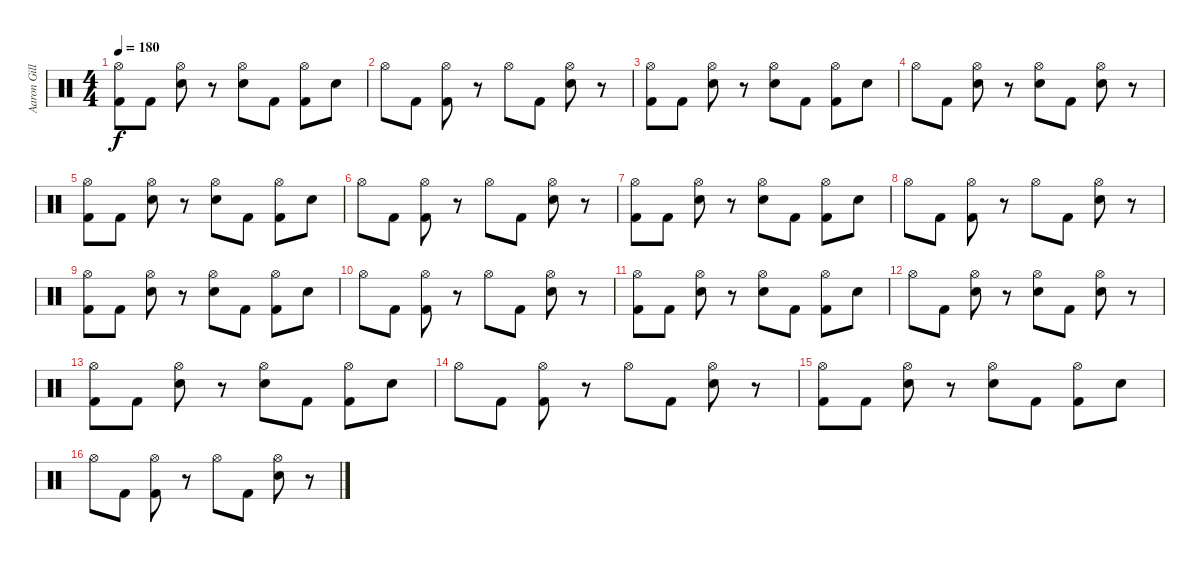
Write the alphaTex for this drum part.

\track ("Aaron Gillespie 1" "Aaron Gill") {instrument percussion}
\staff {score}
\articulation defaults
\ts (4 4)
\tempo 180
\clef neutral
\ks c
("Hi-Hat (open)" "Kick (hit) 2").8{dy f} "Kick (hit) 2".8 ("Hi-Hat (open)" "Snare (hit) 2").8 r.8 ("Hi-Hat (open)" "Snare (hit) 2").8 "Kick (hit) 2".8 ("Hi-Hat (open)" "Kick (hit) 2").8 "Snare (hit) 2".8 |
"Hi-Hat (open)".8 "Kick (hit) 2".8 ("Hi-Hat (open)" "Kick (hit) 2").8 r.8 "Hi-Hat (open)".8 "Kick (hit) 2".8 ("Hi-Hat (open)" "Snare (hit) 2").8 r.8 |
("Hi-Hat (open)" "Kick (hit) 2").8 "Kick (hit) 2".8 ("Hi-Hat (open)" "Snare (hit) 2").8 r.8 ("Hi-Hat (open)" "Snare (hit) 2").8 "Kick (hit) 2".8 ("Hi-Hat (open)" "Kick (hit) 2").8 "Snare (hit) 2".8 |
"Hi-Hat (open)".8 "Kick (hit) 2".8 ("Hi-Hat (open)" "Snare (hit) 2").8 r.8 ("Hi-Hat (open)" "Snare (hit) 2").8 "Kick (hit) 2".8 ("Hi-Hat (open)" "Snare (hit) 2").8 r.8 |
("Hi-Hat (open)" "Kick (hit) 2").8 "Kick (hit) 2".8 ("Hi-Hat (open)" "Snare (hit) 2").8 r.8 ("Hi-Hat (open)" "Snare (hit) 2").8 "Kick (hit) 2".8 ("Hi-Hat (open)" "Kick (hit) 2").8 "Snare (hit) 2".8 |
"Hi-Hat (open)".8 "Kick (hit) 2".8 ("Hi-Hat (open)" "Kick (hit) 2").8 r.8 "Hi-Hat (open)".8 "Kick (hit) 2".8 ("Hi-Hat (open)" "Snare (hit) 2").8 r.8 |
("Hi-Hat (open)" "Kick (hit) 2").8 "Kick (hit) 2".8 ("Hi-Hat (open)" "Snare (hit) 2").8 r.8 ("Hi-Hat (open)" "Snare (hit) 2").8 "Kick (hit) 2".8 ("Hi-Hat (open)" "Kick (hit) 2").8 "Snare (hit) 2".8 |
"Hi-Hat (open)".8 "Kick (hit) 2".8 ("Hi-Hat (open)" "Kick (hit) 2").8 r.8 "Hi-Hat (open)".8 "Kick (hit) 2".8 ("Hi-Hat (open)" "Snare (hit) 2").8 r.8 |
("Hi-Hat (open)" "Kick (hit) 2").8 "Kick (hit) 2".8 ("Hi-Hat (open)" "Snare (hit) 2").8 r.8 ("Hi-Hat (open)" "Snare (hit) 2").8 "Kick (hit) 2".8 ("Hi-Hat (open)" "Kick (hit) 2").8 "Snare (hit) 2".8 |
"Hi-Hat (open)".8 "Kick (hit) 2".8 ("Hi-Hat (open)" "Kick (hit) 2").8 r.8 "Hi-Hat (open)".8 "Kick (hit) 2".8 ("Hi-Hat (open)" "Snare (hit) 2").8 r.8 |
("Hi-Hat (open)" "Kick (hit) 2").8 "Kick (hit) 2".8 ("Hi-Hat (open)" "Snare (hit) 2").8 r.8 ("Hi-Hat (open)" "Snare (hit) 2").8 "Kick (hit) 2".8 ("Hi-Hat (open)" "Kick (hit) 2").8 "Snare (hit) 2".8 |
"Hi-Hat (open)".8 "Kick (hit) 2".8 ("Hi-Hat (open)" "Snare (hit) 2").8 r.8 ("Hi-Hat (open)" "Snare (hit) 2").8 "Kick (hit) 2".8 ("Hi-Hat (open)" "Snare (hit) 2").8 r.8 |
("Hi-Hat (open)" "Kick (hit) 2").8 "Kick (hit) 2".8 ("Hi-Hat (open)" "Snare (hit) 2").8 r.8 ("Hi-Hat (open)" "Snare (hit) 2").8 "Kick (hit) 2".8 ("Hi-Hat (open)" "Kick (hit) 2").8 "Snare (hit) 2".8 |
"Hi-Hat (open)".8 "Kick (hit) 2".8 ("Hi-Hat (open)" "Kick (hit) 2").8 r.8 "Hi-Hat (open)".8 "Kick (hit) 2".8 ("Hi-Hat (open)" "Snare (hit) 2").8 r.8 |
("Hi-Hat (open)" "Kick (hit) 2").8 "Kick (hit) 2".8 ("Hi-Hat (open)" "Snare (hit) 2").8 r.8 ("Hi-Hat (open)" "Snare (hit) 2").8 "Kick (hit) 2".8 ("Hi-Hat (open)" "Kick (hit) 2").8 "Snare (hit) 2".8 |
"Hi-Hat (open)".8 "Kick (hit) 2".8 ("Hi-Hat (open)" "Kick (hit) 2").8 r.8 "Hi-Hat (open)".8 "Kick (hit) 2".8 ("Hi-Hat (open)" "Snare (hit) 2").8 r.8
